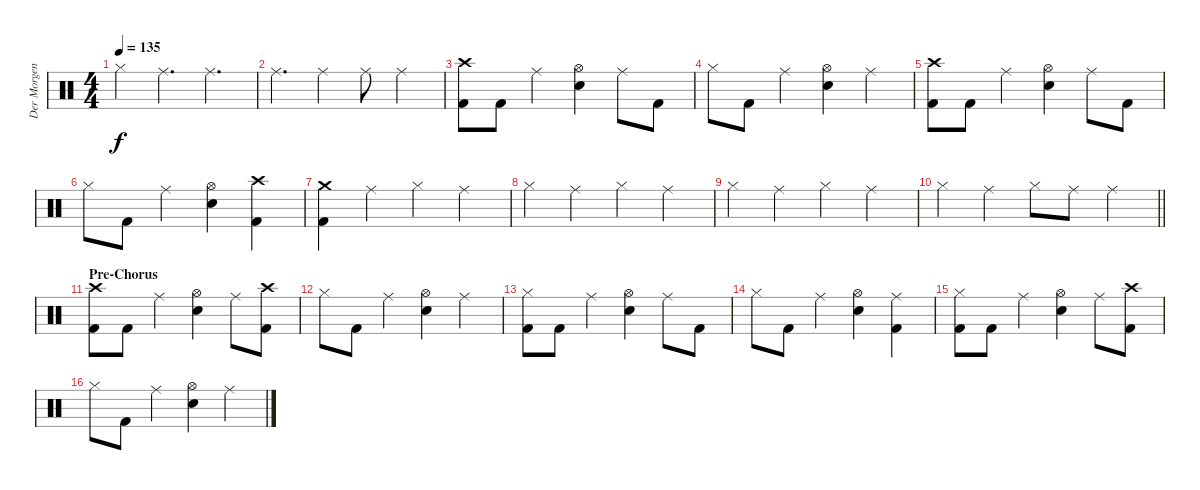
\track ("Der Morgenstern" "Der Morgen") {instrument percussion}
\staff {score}
\articulation defaults
\ts (4 4)
\tempo 135
\clef neutral
\ks c "Hi-Hat (closed)".4{dy f} "Ride (middle)".4{d} "Ride (middle)".4{d}
|
"Ride (middle)".4{d} "Ride (middle)".4 "Ride (middle)".8 "Ride (middle)".4 |
("Crash high (hit)" "Kick (hit) 2").8 "Kick (hit) 2".8 "Ride (middle)".4 ("Hi-Hat (open)" "Electric Snare (hit)").4 "Ride (middle)".8 "Kick (hit) 2".8 |
"Hi-Hat (closed)".8 "Kick (hit) 2".8 "Ride (middle)".4 ("Hi-Hat (open)" "Electric Snare (hit)").4 "Ride (middle)".4 |
("Crash high (hit)" "Kick (hit) 2").8 "Kick (hit) 2".8 "Ride (middle)".4 ("Hi-Hat (open)" "Electric Snare (hit)").4 "Ride (middle)".8 "Kick (hit) 2".8 |
"Hi-Hat (closed)".8 "Kick (hit) 2".8 "Ride (middle)".4 ("Hi-Hat (open)" "Electric Snare (hit)").4 ("Crash high (hit)" "Kick (hit) 2").4 |
("Crash medium (hit)" "Kick (hit) 2").4 "Ride (middle)".4 "Hi-Hat (closed)".4 "Ride (middle)".4 |
"Hi-Hat (closed)".4 "Ride (middle)".4 "Hi-Hat (closed)".4 "Ride (middle)".4 |
"Hi-Hat (closed)".4 "Ride (middle)".4 "Hi-Hat (closed)".4 "Ride (middle)".4 |
\barLineRight lightlight "Hi-Hat (closed)".4 "Ride (middle)".4 "Hi-Hat (closed)".8 "Ride (middle)".8 "Ride (middle)".4
|
\section ("" "Pre-Chorus")
("Crash high (hit)" "Kick (hit) 2").8 "Kick (hit) 2".8 "Ride (middle)".4 ("Hi-Hat (open)" "Electric Snare (hit)").4 "Ride (middle)".8 ("Crash high (hit)" "Kick (hit) 2").8 |
"Hi-Hat (closed)".8 "Kick (hit) 2".8 "Ride (middle)".4 ("Hi-Hat (open)" "Electric Snare (hit)").4 "Ride (middle)".4 |
("Hi-Hat (closed)" "Kick (hit) 2").8 "Kick (hit) 2".8 "Ride (middle)".4 ("Hi-Hat (open)" "Electric Snare (hit)").4 "Ride (middle)".8 "Kick (hit) 2".8 |
"Hi-Hat (closed)".8 "Kick (hit) 2".8 "Ride (middle)".4 ("Hi-Hat (open)" "Electric Snare (hit)").4 ("Ride (middle)" "Kick (hit) 2").4 |
("Hi-Hat (closed)" "Kick (hit) 2").8 "Kick (hit) 2".8 "Ride (middle)".4 ("Hi-Hat (open)" "Electric Snare (hit)").4 "Ride (middle)".8 ("Crash high (hit)" "Kick (hit) 2").8 |
"Hi-Hat (closed)".8 "Kick (hit) 2".8 "Ride (middle)".4 ("Hi-Hat (open)" "Electric Snare (hit)").4 "Ride (middle)".4
